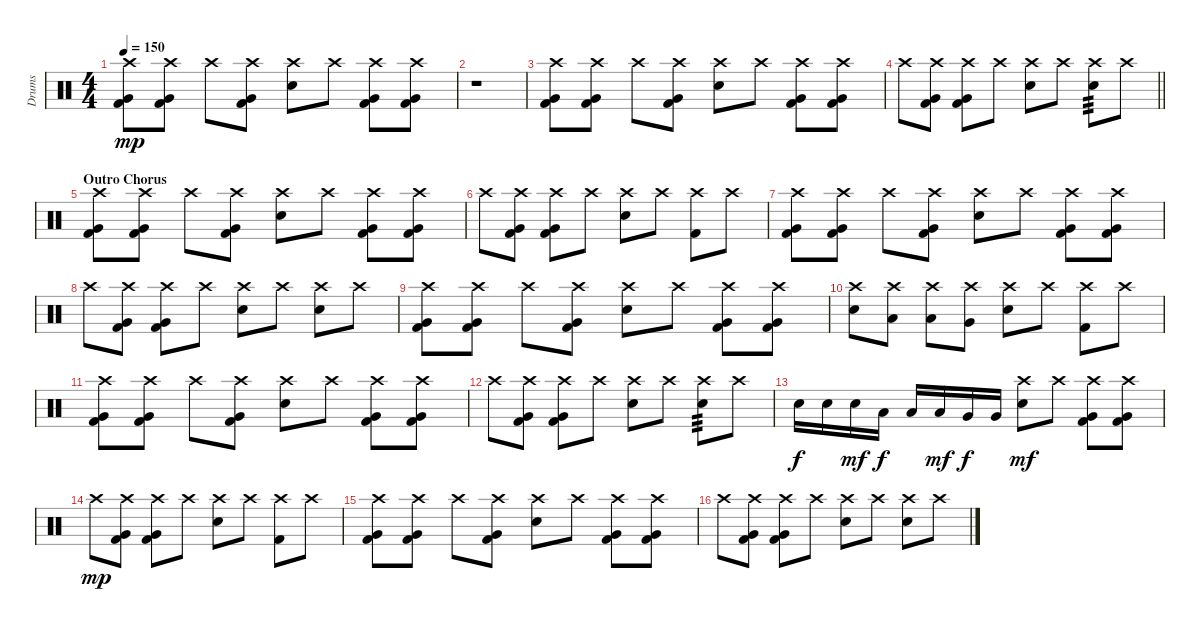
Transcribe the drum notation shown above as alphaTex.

\track ("Drums" "Drums") {instrument percussion}
\staff {score}
\articulation defaults
\ts (4 4)
\tempo 150
\clef neutral
\ks c
("Crash high (hit)" "Very Low Tom (hit)" "Kick (hit) 2").8{dy mp} ("Crash high (hit)" "Very Low Tom (hit)" "Kick (hit) 2").8 "Crash high (hit)".8 ("Crash high (hit)" "Very Low Tom (hit)" "Kick (hit) 2").8 ("Crash high (hit)" "Electric Snare (hit)").8 "Crash high (hit)".8 ("Crash high (hit)" "Very Low Tom (hit)" "Kick (hit) 2").8 ("Crash high (hit)" "Very Low Tom (hit)" "Kick (hit) 2").8 |
r.1 |
("Crash high (hit)" "Very Low Tom (hit)" "Kick (hit) 2").8 ("Crash high (hit)" "Very Low Tom (hit)" "Kick (hit) 2").8 "Crash high (hit)".8 ("Crash high (hit)" "Very Low Tom (hit)" "Kick (hit) 2").8 ("Crash high (hit)" "Electric Snare (hit)").8 "Crash high (hit)".8 ("Crash high (hit)" "Very Low Tom (hit)" "Kick (hit) 2").8 ("Crash high (hit)" "Very Low Tom (hit)" "Kick (hit) 2").8 |
\barLineRight lightlight "Crash high (hit)".8
("Crash high (hit)" "Very Low Tom (hit)" "Kick (hit) 2").8 ("Crash high (hit)" "Very Low Tom (hit)" "Kick (hit) 2").8 "Crash high (hit)".8 ("Crash high (hit)" "Electric Snare (hit)").8 "Crash high (hit)".8 ("Crash high (hit)" "Electric Snare (hit)").8{tp 3} "Crash high (hit)".8 |
\section ("" "Outro Chorus")
("Crash high (hit)" "Very Low Tom (hit)" "Kick (hit) 2").8 ("Crash high (hit)" "Very Low Tom (hit)" "Kick (hit) 2").8 "Crash high (hit)".8 ("Crash high (hit)" "Very Low Tom (hit)" "Kick (hit) 2").8 ("Crash high (hit)" "Electric Snare (hit)").8 "Crash high (hit)".8 ("Crash high (hit)" "Very Low Tom (hit)" "Kick (hit) 2").8 ("Crash high (hit)" "Very Low Tom (hit)" "Kick (hit) 2").8 |
"Crash high (hit)".8 ("Crash high (hit)" "Very Low Tom (hit)" "Kick (hit) 2").8 ("Crash high (hit)" "Very Low Tom (hit)" "Kick (hit) 2").8 "Crash high (hit)".8 ("Crash high (hit)" "Electric Snare (hit)").8 "Crash high (hit)".8 ("Crash high (hit)" "Kick (hit) 2").8 "Crash high (hit)".8 |
("Crash high (hit)" "Very Low Tom (hit)" "Kick (hit) 2").8 ("Crash high (hit)" "Very Low Tom (hit)" "Kick (hit) 2").8 "Crash high (hit)".8 ("Crash high (hit)" "Very Low Tom (hit)" "Kick (hit) 2").8 ("Crash high (hit)" "Electric Snare (hit)").8 "Crash high (hit)".8 ("Crash high (hit)" "Very Low Tom (hit)" "Kick (hit) 2").8 ("Crash high (hit)" "Very Low Tom (hit)" "Kick (hit) 2").8 |
"Crash high (hit)".8 ("Crash high (hit)" "Very Low Tom (hit)" "Kick (hit) 2").8 ("Crash high (hit)" "Very Low Tom (hit)" "Kick (hit) 2").8 "Crash high (hit)".8 ("Crash high (hit)" "Electric Snare (hit)").8 "Crash high (hit)".8 ("Crash high (hit)" "Electric Snare (hit)").8 "Crash high (hit)".8 |
("Crash high (hit)" "Very Low Tom (hit)" "Kick (hit) 2").8 ("Crash high (hit)" "Very Low Tom (hit)" "Kick (hit) 2").8 "Crash high (hit)".8 ("Crash high (hit)" "Very Low Tom (hit)" "Kick (hit) 2").8 ("Crash high (hit)" "Electric Snare (hit)").8 "Crash high (hit)".8 ("Crash high (hit)" "Very Low Tom (hit)" "Kick (hit) 2").8 ("Crash high (hit)" "Very Low Tom (hit)" "Kick (hit) 2").8 |
("Crash high (hit)" "Electric Snare (hit)").8 ("Crash high (hit)" "Low Tom (hit)").8 ("Crash high (hit)" "Low Tom (hit)").8 ("Crash high (hit)" "Very Low Tom (hit)").8 ("Crash high (hit)" "Electric Snare (hit)").8 "Crash high (hit)".8 ("Crash high (hit)" "Kick (hit) 2").8 "Crash high (hit)".8 |
("Crash high (hit)" "Very Low Tom (hit)" "Kick (hit) 2").8 ("Crash high (hit)" "Very Low Tom (hit)" "Kick (hit) 2").8 "Crash high (hit)".8 ("Crash high (hit)" "Very Low Tom (hit)" "Kick (hit) 2").8 ("Crash high (hit)" "Electric Snare (hit)").8 "Crash high (hit)".8 ("Crash high (hit)" "Very Low Tom (hit)" "Kick (hit) 2").8 ("Crash high (hit)" "Very Low Tom (hit)" "Kick (hit) 2").8 |
"Crash high (hit)".8 ("Crash high (hit)" "Very Low Tom (hit)" "Kick (hit) 2").8 ("Crash high (hit)" "Very Low Tom (hit)" "Kick (hit) 2").8 "Crash high (hit)".8 ("Crash high (hit)" "Electric Snare (hit)").8 "Crash high (hit)".8 ("Crash high (hit)" "Electric Snare (hit)").8{tp 3} "Crash high (hit)".8 |
"Electric Snare (hit)".16{dy f} "Electric Snare (hit)".16 "Electric Snare (hit)".16{dy mf} "Low Tom (hit)".16{dy f} "Low Tom (hit)".16 "Low Tom (hit)".16{dy mf} "Very Low Tom (hit)".16{dy f} "Very Low Tom (hit)".16 ("Crash high (hit)" "Electric Snare (hit)").8{dy mf} "Crash high (hit)".8 ("Crash high (hit)" "Very Low Tom (hit)" "Kick (hit) 2").8 ("Crash high (hit)" "Very Low Tom (hit)" "Kick (hit) 2").8 |
"Crash high (hit)".8{dy mp} ("Crash high (hit)" "Very Low Tom (hit)" "Kick (hit) 2").8 ("Crash high (hit)" "Very Low Tom (hit)" "Kick (hit) 2").8 "Crash high (hit)".8 ("Crash high (hit)" "Electric Snare (hit)").8 "Crash high (hit)".8 ("Crash high (hit)" "Kick (hit) 2").8 "Crash high (hit)".8 |
("Crash high (hit)" "Very Low Tom (hit)" "Kick (hit) 2").8 ("Crash high (hit)" "Very Low Tom (hit)" "Kick (hit) 2").8 "Crash high (hit)".8 ("Crash high (hit)" "Very Low Tom (hit)" "Kick (hit) 2").8 ("Crash high (hit)" "Electric Snare (hit)").8 "Crash high (hit)".8 ("Crash high (hit)" "Very Low Tom (hit)" "Kick (hit) 2").8 ("Crash high (hit)" "Very Low Tom (hit)" "Kick (hit) 2").8 |
"Crash high (hit)".8 ("Crash high (hit)" "Very Low Tom (hit)" "Kick (hit) 2").8 ("Crash high (hit)" "Very Low Tom (hit)" "Kick (hit) 2").8 "Crash high (hit)".8 ("Crash high (hit)" "Electric Snare (hit)").8 "Crash high (hit)".8 ("Crash high (hit)" "Electric Snare (hit)").8 "Crash high (hit)".8
